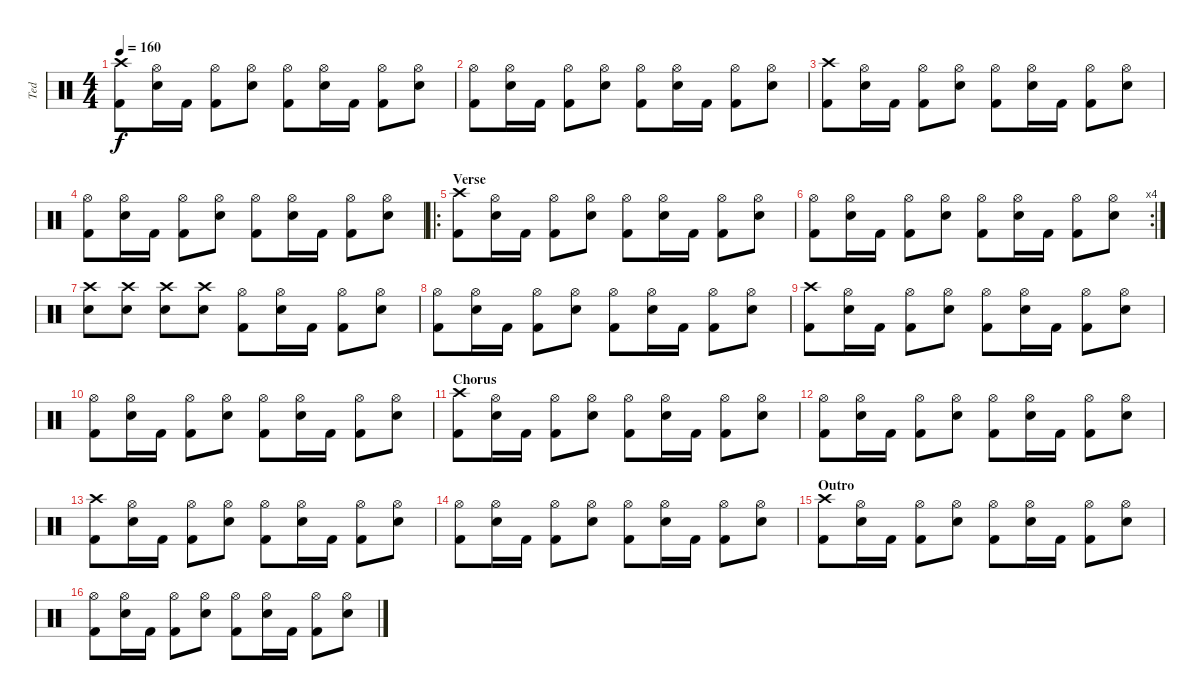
\track ("Ted" "Ted") {instrument percussion}
\staff {score}
\articulation defaults
\ts (4 4)
\tempo 160
\clef neutral
\ks c
("Crash high (hit)" "Kick (hit) 2").8{dy f} ("Hi-Hat (open)" "Electric Snare (hit)").16 "Kick (hit) 2".16 ("Hi-Hat (open)" "Kick (hit) 2").8 ("Hi-Hat (open)" "Electric Snare (hit)").8 ("Hi-Hat (open)" "Kick (hit) 2").8 ("Hi-Hat (open)" "Electric Snare (hit)").16 "Kick (hit) 2".16 ("Hi-Hat (open)" "Kick (hit) 2").8 ("Hi-Hat (open)" "Electric Snare (hit)").8 |
("Hi-Hat (open)" "Kick (hit) 2").8 ("Hi-Hat (open)" "Electric Snare (hit)").16 "Kick (hit) 2".16 ("Hi-Hat (open)" "Kick (hit) 2").8 ("Hi-Hat (open)" "Electric Snare (hit)").8 ("Hi-Hat (open)" "Kick (hit) 2").8 ("Hi-Hat (open)" "Electric Snare (hit)").16 "Kick (hit) 2".16 ("Hi-Hat (open)" "Kick (hit) 2").8 ("Hi-Hat (open)" "Electric Snare (hit)").8 |
("Crash high (hit)" "Kick (hit) 2").8 ("Hi-Hat (open)" "Electric Snare (hit)").16 "Kick (hit) 2".16 ("Hi-Hat (open)" "Kick (hit) 2").8 ("Hi-Hat (open)" "Electric Snare (hit)").8 ("Hi-Hat (open)" "Kick (hit) 2").8 ("Hi-Hat (open)" "Electric Snare (hit)").16 "Kick (hit) 2".16 ("Hi-Hat (open)" "Kick (hit) 2").8 ("Hi-Hat (open)" "Electric Snare (hit)").8 |
("Hi-Hat (open)" "Kick (hit) 2").8 ("Hi-Hat (open)" "Electric Snare (hit)").16 "Kick (hit) 2".16 ("Hi-Hat (open)" "Kick (hit) 2").8 ("Hi-Hat (open)" "Electric Snare (hit)").8 ("Hi-Hat (open)" "Kick (hit) 2").8 ("Hi-Hat (open)" "Electric Snare (hit)").16 "Kick (hit) 2".16 ("Hi-Hat (open)" "Kick (hit) 2").8 ("Hi-Hat (open)" "Electric Snare (hit)").8 |
\ro
\section ("" "Verse")
("Crash high (hit)" "Kick (hit) 2").8 ("Hi-Hat (open)" "Electric Snare (hit)").16 "Kick (hit) 2".16 ("Hi-Hat (open)" "Kick (hit) 2").8 ("Hi-Hat (open)" "Electric Snare (hit)").8 ("Hi-Hat (open)" "Kick (hit) 2").8 ("Hi-Hat (open)" "Electric Snare (hit)").16 "Kick (hit) 2".16 ("Hi-Hat (open)" "Kick (hit) 2").8 ("Hi-Hat (open)" "Electric Snare (hit)").8 |
\rc 4
("Hi-Hat (open)" "Kick (hit) 2").8 ("Hi-Hat (open)" "Electric Snare (hit)").16 "Kick (hit) 2".16 ("Hi-Hat (open)" "Kick (hit) 2").8 ("Hi-Hat (open)" "Electric Snare (hit)").8 ("Hi-Hat (open)" "Kick (hit) 2").8 ("Hi-Hat (open)" "Electric Snare (hit)").16 "Kick (hit) 2".16 ("Hi-Hat (open)" "Kick (hit) 2").8 ("Hi-Hat (open)" "Electric Snare (hit)").8 |
("Crash high (hit)" "Electric Snare (hit)").8 ("Crash high (hit)" "Electric Snare (hit)").8 ("Crash high (hit)" "Electric Snare (hit)").8 ("Crash high (hit)" "Electric Snare (hit)").8 ("Hi-Hat (open)" "Kick (hit) 2").8 ("Hi-Hat (open)" "Electric Snare (hit)").16 "Kick (hit) 2".16 ("Hi-Hat (open)" "Kick (hit) 2").8 ("Hi-Hat (open)" "Electric Snare (hit)").8 |
("Hi-Hat (open)" "Kick (hit) 2").8 ("Hi-Hat (open)" "Electric Snare (hit)").16 "Kick (hit) 2".16 ("Hi-Hat (open)" "Kick (hit) 2").8 ("Hi-Hat (open)" "Electric Snare (hit)").8 ("Hi-Hat (open)" "Kick (hit) 2").8 ("Hi-Hat (open)" "Electric Snare (hit)").16 "Kick (hit) 2".16 ("Hi-Hat (open)" "Kick (hit) 2").8 ("Hi-Hat (open)" "Electric Snare (hit)").8 |
("Crash high (hit)" "Kick (hit) 2").8 ("Hi-Hat (open)" "Electric Snare (hit)").16 "Kick (hit) 2".16 ("Hi-Hat (open)" "Kick (hit) 2").8 ("Hi-Hat (open)" "Electric Snare (hit)").8 ("Hi-Hat (open)" "Kick (hit) 2").8 ("Hi-Hat (open)" "Electric Snare (hit)").16 "Kick (hit) 2".16 ("Hi-Hat (open)" "Kick (hit) 2").8 ("Hi-Hat (open)" "Electric Snare (hit)").8 |
("Hi-Hat (open)" "Kick (hit) 2").8 ("Hi-Hat (open)" "Electric Snare (hit)").16 "Kick (hit) 2".16 ("Hi-Hat (open)" "Kick (hit) 2").8 ("Hi-Hat (open)" "Electric Snare (hit)").8 ("Hi-Hat (open)" "Kick (hit) 2").8 ("Hi-Hat (open)" "Electric Snare (hit)").16 "Kick (hit) 2".16 ("Hi-Hat (open)" "Kick (hit) 2").8 ("Hi-Hat (open)" "Electric Snare (hit)").8 |
\section ("" "Chorus")
("Crash high (hit)" "Kick (hit) 2").8 ("Hi-Hat (open)" "Electric Snare (hit)").16 "Kick (hit) 2".16 ("Hi-Hat (open)" "Kick (hit) 2").8 ("Hi-Hat (open)" "Electric Snare (hit)").8 ("Hi-Hat (open)" "Kick (hit) 2").8 ("Hi-Hat (open)" "Electric Snare (hit)").16 "Kick (hit) 2".16 ("Hi-Hat (open)" "Kick (hit) 2").8 ("Hi-Hat (open)" "Electric Snare (hit)").8 |
("Hi-Hat (open)" "Kick (hit) 2").8 ("Hi-Hat (open)" "Electric Snare (hit)").16 "Kick (hit) 2".16 ("Hi-Hat (open)" "Kick (hit) 2").8 ("Hi-Hat (open)" "Electric Snare (hit)").8 ("Hi-Hat (open)" "Kick (hit) 2").8 ("Hi-Hat (open)" "Electric Snare (hit)").16 "Kick (hit) 2".16 ("Hi-Hat (open)" "Kick (hit) 2").8 ("Hi-Hat (open)" "Electric Snare (hit)").8 |
("Crash high (hit)" "Kick (hit) 2").8 ("Hi-Hat (open)" "Electric Snare (hit)").16 "Kick (hit) 2".16 ("Hi-Hat (open)" "Kick (hit) 2").8 ("Hi-Hat (open)" "Electric Snare (hit)").8 ("Hi-Hat (open)" "Kick (hit) 2").8 ("Hi-Hat (open)" "Electric Snare (hit)").16 "Kick (hit) 2".16 ("Hi-Hat (open)" "Kick (hit) 2").8 ("Hi-Hat (open)" "Electric Snare (hit)").8 |
("Hi-Hat (open)" "Kick (hit) 2").8 ("Hi-Hat (open)" "Electric Snare (hit)").16 "Kick (hit) 2".16 ("Hi-Hat (open)" "Kick (hit) 2").8 ("Hi-Hat (open)" "Electric Snare (hit)").8 ("Hi-Hat (open)" "Kick (hit) 2").8 ("Hi-Hat (open)" "Electric Snare (hit)").16 "Kick (hit) 2".16 ("Hi-Hat (open)" "Kick (hit) 2").8 ("Hi-Hat (open)" "Electric Snare (hit)").8 |
\section ("" "Outro")
("Crash high (hit)" "Kick (hit) 2").8 ("Hi-Hat (open)" "Electric Snare (hit)").16 "Kick (hit) 2".16 ("Hi-Hat (open)" "Kick (hit) 2").8 ("Hi-Hat (open)" "Electric Snare (hit)").8 ("Hi-Hat (open)" "Kick (hit) 2").8 ("Hi-Hat (open)" "Electric Snare (hit)").16 "Kick (hit) 2".16 ("Hi-Hat (open)" "Kick (hit) 2").8 ("Hi-Hat (open)" "Electric Snare (hit)").8 |
("Hi-Hat (open)" "Kick (hit) 2").8 ("Hi-Hat (open)" "Electric Snare (hit)").16 "Kick (hit) 2".16 ("Hi-Hat (open)" "Kick (hit) 2").8 ("Hi-Hat (open)" "Electric Snare (hit)").8 ("Hi-Hat (open)" "Kick (hit) 2").8 ("Hi-Hat (open)" "Electric Snare (hit)").16 "Kick (hit) 2".16 ("Hi-Hat (open)" "Kick (hit) 2").8 ("Hi-Hat (open)" "Electric Snare (hit)").8
